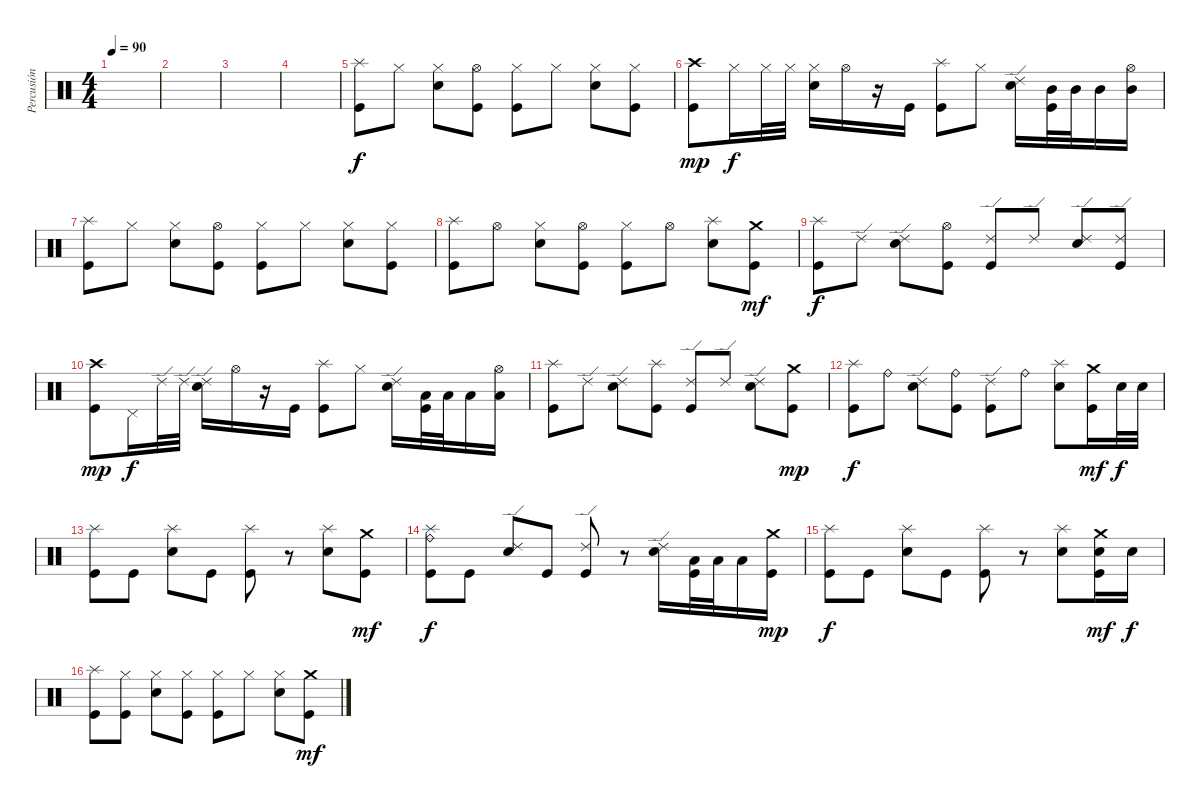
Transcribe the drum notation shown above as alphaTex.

\track ("Percusión" "Percusión") {instrument percussion}
\staff {score}
\articulation defaults
\ts (4 4)
\tempo 90
\clef neutral
\ks c
|
|
|
|
("Splash (hit)" "Kick (hit)").8 "Hi-Hat (closed)".8 ("Hi-Hat (closed)" "Electric Snare (hit)").8 ("Hi-Hat (open)" "Kick (hit)").8 ("Hi-Hat (closed)" "Kick (hit)").8 "Hi-Hat (closed)".8 ("Hi-Hat (closed)" "Electric Snare (hit)").8 ("Hi-Hat (closed)" "Kick (hit)").8 |
("Crash high (hit)" "Kick (hit)").8{dy mp} "Hi-Hat (closed)".16{dy f} "Hi-Hat (closed)".32 "Hi-Hat (closed)".32 ("Hi-Hat (closed)" "Electric Snare (hit)").16 "Hi-Hat (open)".16 r.16 "Kick (hit)".16 ("Splash (hit)" "Kick (hit)").8 "Hi-Hat (closed)".8 ("Ride (edge) 2" "Electric Snare (hit)").16 ("Mid Tom (hit)" "Kick (hit)").32 "Mid Tom (hit)".32 "Mid Tom (hit)".16 ("Hi-Hat (open)" "Mid Tom (hit)").16 |
("Splash (hit)" "Kick (hit)").8 "Hi-Hat (closed)".8 ("Hi-Hat (closed)" "Electric Snare (hit)").8 ("Hi-Hat (open)" "Kick (hit)").8 ("Hi-Hat (closed)" "Kick (hit)").8 "Hi-Hat (closed)".8 ("Hi-Hat (closed)" "Electric Snare (hit)").8 ("Hi-Hat (closed)" "Kick (hit)").8 |
("Splash (hit)" "Kick (hit)").8 "Hi-Hat (open)".8 ("Hi-Hat (closed)" "Electric Snare (hit)").8 ("Hi-Hat (open)" "Kick (hit)").8 ("Hi-Hat (closed)" "Kick (hit)").8 "Hi-Hat (open)".8 ("Splash (hit)" "Electric Snare (hit)").8 ("Crash medium (hit)" "Kick (hit)").8{dy mf} |
("Splash (hit)" "Kick (hit)").8{dy f} "Ride (edge) 2".8 ("Ride (edge) 2" "Electric Snare (hit)").8 ("Hi-Hat (open)" "Kick (hit)").8 ("Ride (edge) 2" "Kick (hit)").8 "Ride (edge) 2".8 ("Ride (edge) 2" "Electric Snare (hit)").8 ("Ride (edge) 2" "Kick (hit)").8 |
("Crash high (hit)" "Kick (hit)").8{dy mp} "Pedal Hi-Hat (hit)".16{dy f} "Ride (edge) 2".32 "Ride (edge) 2".32 ("Ride (edge) 2" "Electric Snare (hit)").16 "Hi-Hat (open)".16 r.16 "Kick (hit)".16 ("Splash (hit)" "Kick (hit)").8 "Hi-Hat (closed)".8 ("Ride (edge) 2" "Electric Snare (hit)").16 ("Low Tom (hit)" "Kick (hit)").32 "Low Tom (hit)".32 "Low Tom (hit)".16 ("Hi-Hat (open)" "Low Tom (hit)").16 |
("Splash (hit)" "Kick (hit)").8 "Ride (edge) 2".8 ("Ride (edge) 2" "Electric Snare (hit)").8 ("Splash (hit)" "Kick (hit)").8 ("Ride (edge) 2" "Kick (hit)").8 "Ride (edge) 2".8 ("Ride (edge) 2" "Electric Snare (hit)").8 ("Crash medium (hit)" "Kick (hit)").8{dy mp} |
("Splash (hit)" "Kick (hit)").8{dy f} "Ride (bell)".8 ("Ride (edge) 2" "Electric Snare (hit)").8 ("Ride (bell)" "Kick (hit)").8 ("Ride (edge) 2" "Kick (hit)").8 "Ride (bell)".8 ("Splash (hit)" "Electric Snare (hit)").8 ("Crash medium (hit)" "Kick (hit)").16{dy mf} "Electric Snare (hit)".32{dy f} "Electric Snare (hit)".32 |
("Splash (hit)" "Kick (hit)").8 "Kick (hit)".8 ("Splash (hit)" "Electric Snare (hit)").8 "Kick (hit)".8 ("Splash (hit)" "Kick (hit)").8 r.8 ("Splash (hit)" "Electric Snare (hit)").8 ("Crash medium (hit)" "Kick (hit)").8{dy mf} |
("Ride (bell)" "Splash (hit)" "Kick (hit)").8{dy f} "Kick (hit)".8 ("Ride (edge) 2" "Electric Snare (hit)").8 "Kick (hit)".8 ("Ride (edge) 2" "Kick (hit)").8 r.8 ("Ride (edge) 2" "Electric Snare (hit)").16 ("Low Floor Tom (hit)" "Kick (hit)").32 "Low Floor Tom (hit)".32 "Low Floor Tom (hit)".16 ("Crash medium (hit)" "Kick (hit)").16{dy mp} |
("Splash (hit)" "Kick (hit)").8{dy f} "Kick (hit)".8 ("Splash (hit)" "Electric Snare (hit)").8 "Kick (hit)".8 ("Splash (hit)" "Kick (hit)").8 r.8 ("Splash (hit)" "Electric Snare (hit)").8 ("Crash medium (hit)" "Electric Snare (hit)" "Kick (hit)").16{dy mf} "Electric Snare (hit)".16{dy f} |
("Splash (hit)" "Kick (hit)").8 ("Hi-Hat (closed)" "Kick (hit)").8 ("Hi-Hat (closed)" "Electric Snare (hit)").8 ("Hi-Hat (closed)" "Kick (hit)").8 ("Hi-Hat (closed)" "Kick (hit)").8 "Hi-Hat (closed)".8 ("Hi-Hat (closed)" "Electric Snare (hit)").8 ("Crash medium (hit)" "Kick (hit)").8{dy mf}
